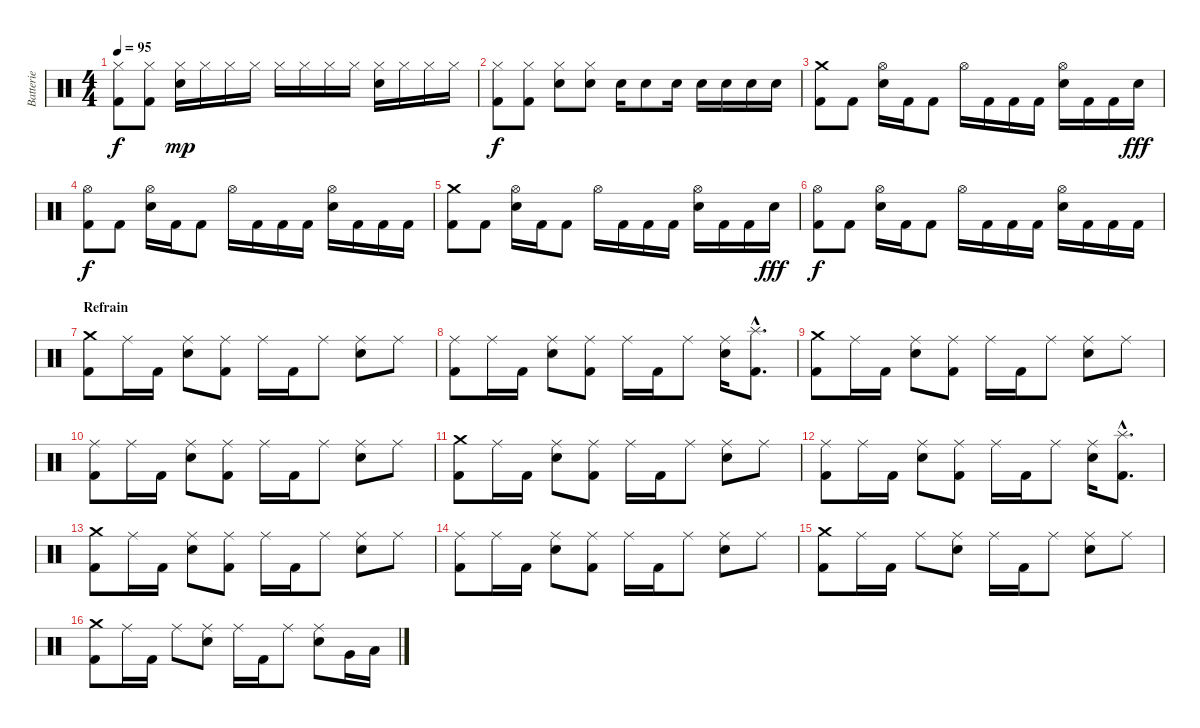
\track ("Batterie" "Batterie") {instrument percussion}
\staff {score}
\articulation defaults
\ts (4 4)
\tempo 95
\clef neutral
\ks c
("Hi-Hat (closed)" "Kick (hit) 2").8{dy f} ("Hi-Hat (closed)" "Kick (hit) 2").8 ("Hi-Hat (closed)" "Electric Snare (hit)").16{dy mp} "Hi-Hat (closed)".16 "Hi-Hat (closed)".16 "Hi-Hat (closed)".16 "Hi-Hat (closed)".16 "Hi-Hat (closed)".16 "Hi-Hat (closed)".16 "Hi-Hat (closed)".16 ("Hi-Hat (closed)" "Electric Snare (hit)").16 "Hi-Hat (closed)".16 "Hi-Hat (closed)".16 "Hi-Hat (closed)".16 |
("Hi-Hat (closed)" "Kick (hit) 2").8{dy f} ("Hi-Hat (closed)" "Kick (hit) 2").8 ("Hi-Hat (closed)" "Electric Snare (hit)").8 ("Hi-Hat (closed)" "Electric Snare (hit)").8 "Electric Snare (hit)".16 "Electric Snare (hit)".8 "Electric Snare (hit)".16 "Electric Snare (hit)".16 "Electric Snare (hit)".16 "Electric Snare (hit)".16 "Electric Snare (hit)".16 |
("Crash medium (hit)" "Kick (hit) 2").8 "Kick (hit) 2".8 ("Hi-Hat (open)" "Electric Snare (hit)").16 "Kick (hit) 2".16 "Kick (hit) 2".8 "Hi-Hat (open)".16 "Kick (hit) 2".16 "Kick (hit) 2".16 "Kick (hit) 2".16 ("Hi-Hat (open)" "Electric Snare (hit)").16 "Kick (hit) 2".16 "Kick (hit) 2".16 "Electric Snare (hit)".16{dy fff} |
("Hi-Hat (open)" "Kick (hit) 2").8{dy f} "Kick (hit) 2".8 ("Hi-Hat (open)" "Electric Snare (hit)").16 "Kick (hit) 2".16 "Kick (hit) 2".8 "Hi-Hat (open)".16 "Kick (hit) 2".16 "Kick (hit) 2".16 "Kick (hit) 2".16 ("Hi-Hat (open)" "Electric Snare (hit)").16 "Kick (hit) 2".16 "Kick (hit) 2".16 "Kick (hit) 2".16 |
("Crash medium (hit)" "Kick (hit) 2").8 "Kick (hit) 2".8 ("Hi-Hat (open)" "Electric Snare (hit)").16 "Kick (hit) 2".16 "Kick (hit) 2".8 "Hi-Hat (open)".16 "Kick (hit) 2".16 "Kick (hit) 2".16 "Kick (hit) 2".16 ("Hi-Hat (open)" "Electric Snare (hit)").16 "Kick (hit) 2".16 "Kick (hit) 2".16 "Electric Snare (hit)".16{dy fff} |
("Hi-Hat (open)" "Kick (hit) 2").8{dy f} "Kick (hit) 2".8 ("Hi-Hat (open)" "Electric Snare (hit)").16 "Kick (hit) 2".16 "Kick (hit) 2".8 "Hi-Hat (open)".16 "Kick (hit) 2".16 "Kick (hit) 2".16 "Kick (hit) 2".16 ("Hi-Hat (open)" "Electric Snare (hit)").16 "Kick (hit) 2".16 "Kick (hit) 2".16 "Kick (hit) 2".16 |
\section ("" "Refrain")
("Crash medium (hit)" "Kick (hit) 2").8 "Ride (middle)".16 "Kick (hit) 2".16 ("Ride (middle)" "Electric Snare (hit)").8 ("Ride (middle)" "Kick (hit) 2").8 "Ride (middle)".16 "Kick (hit) 2".16 "Ride (middle)".8 ("Ride (middle)" "Electric Snare (hit)").8 "Ride (middle)".8 |
("Ride (middle)" "Kick (hit) 2").8 "Ride (middle)".16 "Kick (hit) 2".16 ("Ride (middle)" "Electric Snare (hit)").8 ("Ride (middle)" "Kick (hit) 2").8 "Ride (middle)".16 "Kick (hit) 2".16 "Ride (middle)".8 ("Ride (middle)" "Electric Snare (hit)").16 ("Splash (hit)"{hac} "Kick (hit) 2"{hac}).8{d} |
("Crash medium (hit)" "Kick (hit) 2").8 "Ride (middle)".16 "Kick (hit) 2".16 ("Ride (middle)" "Electric Snare (hit)").8 ("Ride (middle)" "Kick (hit) 2").8 "Ride (middle)".16 "Kick (hit) 2".16 "Ride (middle)".8 ("Ride (middle)" "Electric Snare (hit)").8 "Ride (middle)".8 |
("Ride (middle)" "Kick (hit) 2").8 "Ride (middle)".16 "Kick (hit) 2".16 ("Ride (middle)" "Electric Snare (hit)").8 ("Ride (middle)" "Kick (hit) 2").8 "Ride (middle)".16 "Kick (hit) 2".16 "Ride (middle)".8 ("Ride (middle)" "Electric Snare (hit)").8 "Ride (middle)".8 |
("Crash medium (hit)" "Kick (hit) 2").8 "Ride (middle)".16 "Kick (hit) 2".16 ("Ride (middle)" "Electric Snare (hit)").8 ("Ride (middle)" "Kick (hit) 2").8 "Ride (middle)".16 "Kick (hit) 2".16 "Ride (middle)".8 ("Ride (middle)" "Electric Snare (hit)").8 "Ride (middle)".8 |
("Ride (middle)" "Kick (hit) 2").8 "Ride (middle)".16 "Kick (hit) 2".16 ("Ride (middle)" "Electric Snare (hit)").8 ("Ride (middle)" "Kick (hit) 2").8 "Ride (middle)".16 "Kick (hit) 2".16 "Ride (middle)".8 ("Ride (middle)" "Electric Snare (hit)").16 ("Splash (hit)"{hac} "Kick (hit) 2"{hac}).8{d} |
("Crash medium (hit)" "Kick (hit) 2").8 "Ride (middle)".16 "Kick (hit) 2".16 ("Ride (middle)" "Electric Snare (hit)").8 ("Ride (middle)" "Kick (hit) 2").8 "Ride (middle)".16 "Kick (hit) 2".16 "Ride (middle)".8 ("Ride (middle)" "Electric Snare (hit)").8 "Ride (middle)".8 |
("Ride (middle)" "Kick (hit) 2").8 "Ride (middle)".16 "Kick (hit) 2".16 ("Ride (middle)" "Electric Snare (hit)").8 ("Ride (middle)" "Kick (hit) 2").8 "Ride (middle)".16 "Kick (hit) 2".16 "Ride (middle)".8 ("Ride (middle)" "Electric Snare (hit)").8 "Ride (middle)".8 |
("Crash medium (hit)" "Kick (hit) 2").8 "Ride (middle)".16 "Kick (hit) 2".16 "Ride (middle)".8 ("Ride (middle)" "Electric Snare (hit)").8 "Ride (middle)".16 "Kick (hit) 2".16 "Ride (middle)".8 ("Ride (middle)" "Electric Snare (hit)").8 "Ride (middle)".8 |
("Crash medium (hit)" "Kick (hit) 2").8 "Ride (middle)".16 "Kick (hit) 2".16 "Ride (middle)".8 ("Ride (middle)" "Electric Snare (hit)").8 "Ride (middle)".16 "Kick (hit) 2".16 "Ride (middle)".8 ("Ride (middle)" "Electric Snare (hit)").8 "Very Low Tom (hit)".16 "Low Floor Tom (hit)".16
